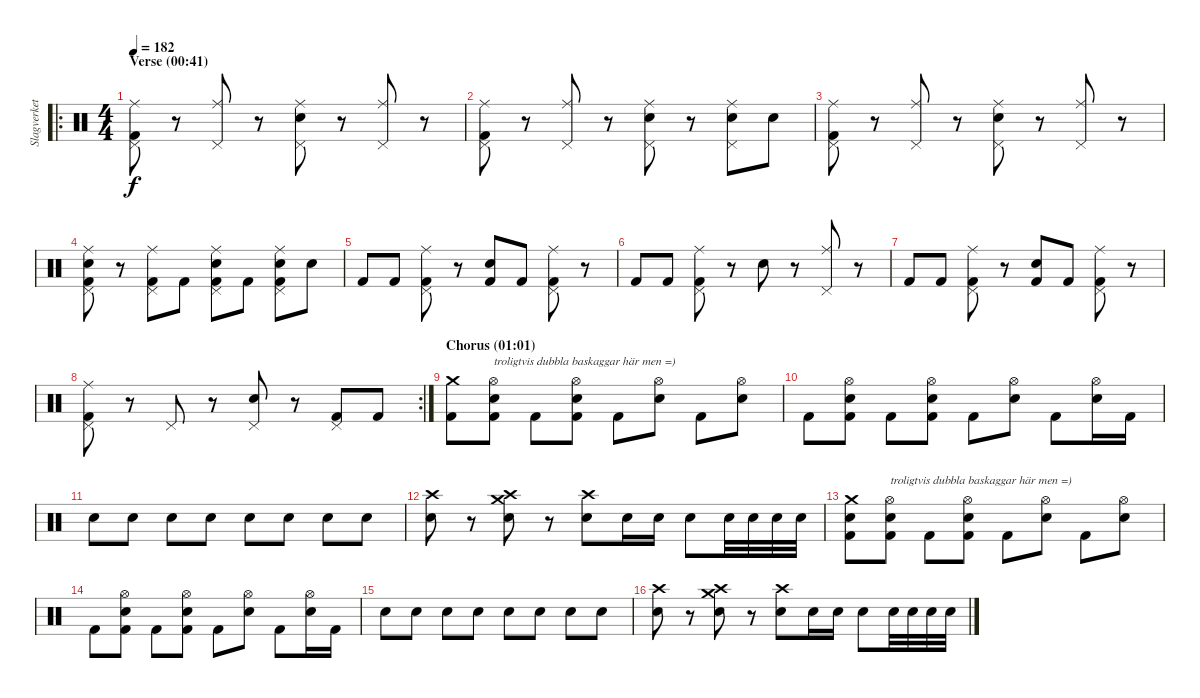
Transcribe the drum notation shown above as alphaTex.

\track ("Slagverket! =)" "Slagverket") {instrument percussion}
\staff {score}
\articulation defaults
\ro
\ts (4 4)
\section ("" "Verse (00:41)")
\tempo 182
\clef neutral
\ks c
("Ride (middle)" "Pedal Hi-Hat (hit)" "Kick (hit) 2").8{dy f} r.8 ("Ride (middle)" "Pedal Hi-Hat (hit)").8 r.8 ("Ride (middle)" "Pedal Hi-Hat (hit)" "Snare (hit) 2").8 r.8 ("Ride (middle)" "Pedal Hi-Hat (hit)").8 r.8 |
("Ride (middle)" "Pedal Hi-Hat (hit)" "Kick (hit) 2").8 r.8 ("Ride (middle)" "Pedal Hi-Hat (hit)").8 r.8 ("Ride (middle)" "Pedal Hi-Hat (hit)" "Snare (hit) 2").8 r.8 ("Ride (middle)" "Pedal Hi-Hat (hit)" "Snare (hit) 2").8 "Snare (hit) 2".8 |
("Ride (middle)" "Pedal Hi-Hat (hit)" "Kick (hit) 2").8 r.8 ("Ride (middle)" "Pedal Hi-Hat (hit)").8 r.8 ("Ride (middle)" "Pedal Hi-Hat (hit)" "Snare (hit) 2").8 r.8 ("Ride (middle)" "Pedal Hi-Hat (hit)").8 r.8 |
("Ride (middle)" "Pedal Hi-Hat (hit)" "Snare (hit) 2" "Kick (hit) 2").8 r.8 ("Ride (middle)" "Pedal Hi-Hat (hit)" "Kick (hit) 2").8 "Kick (hit) 2".8 ("Ride (middle)" "Pedal Hi-Hat (hit)" "Snare (hit) 2" "Kick (hit) 2").8 "Kick (hit) 2".8 ("Ride (middle)" "Pedal Hi-Hat (hit)" "Snare (hit) 2" "Kick (hit) 2").8 "Snare (hit) 2".8 |
"Kick (hit) 2".8 "Kick (hit) 2".8 ("Ride (middle)" "Pedal Hi-Hat (hit)" "Kick (hit) 2").8 r.8 ("Snare (hit) 2" "Kick (hit) 2").8 "Kick (hit) 2".8 ("Ride (middle)" "Pedal Hi-Hat (hit)" "Kick (hit) 2").8 r.8 |
"Kick (hit) 2".8 "Kick (hit) 2".8 ("Ride (middle)" "Pedal Hi-Hat (hit)" "Kick (hit) 2").8 r.8 "Snare (hit) 2".8 r.8 ("Ride (middle)" "Pedal Hi-Hat (hit)").8 r.8 |
"Kick (hit) 2".8 "Kick (hit) 2".8 ("Ride (middle)" "Pedal Hi-Hat (hit)" "Kick (hit) 2").8 r.8 ("Snare (hit) 2" "Kick (hit) 2").8 "Kick (hit) 2".8 ("Ride (middle)" "Pedal Hi-Hat (hit)" "Kick (hit) 2").8 r.8 |
\rc 2
("Ride (middle)" "Pedal Hi-Hat (hit)" "Kick (hit) 2").8 r.8 "Pedal Hi-Hat (hit)".8 r.8 ("Pedal Hi-Hat (hit)" "Snare (hit) 2").8 r.8 ("Pedal Hi-Hat (hit)" "Kick (hit) 2").8 "Kick (hit) 2".8 |
\section ("" "Chorus (01:01)")
("Crash medium (hit)" "Kick (hit) 2").8 ("Hi-Hat (open)" "Snare (hit) 2" "Kick (hit) 2").8{txt "troligtvis dubbla baskaggar här men =)"} "Kick (hit) 2".8 ("Hi-Hat (open)" "Snare (hit) 2" "Kick (hit) 2").8 "Kick (hit) 2".8 ("Hi-Hat (open)" "Snare (hit) 2").8 "Kick (hit) 2".8 ("Hi-Hat (open)" "Snare (hit) 2").8 |
"Kick (hit) 2".8 ("Hi-Hat (open)" "Snare (hit) 2" "Kick (hit) 2").8 "Kick (hit) 2".8 ("Hi-Hat (open)" "Snare (hit) 2" "Kick (hit) 2").8 "Kick (hit) 2".8 ("Hi-Hat (open)" "Snare (hit) 2").8 "Kick (hit) 2".8 ("Hi-Hat (open)" "Snare (hit) 2").16 "Kick (hit) 2".16 |
"Snare (hit) 2".8 "Snare (hit) 2".8 "Snare (hit) 2".8 "Snare (hit) 2".8 "Snare (hit) 2".8 "Snare (hit) 2".8 "Snare (hit) 2".8 "Snare (hit) 2".8 |
("Crash high (hit)" "Snare (hit) 2").8 r.8 ("Crash high (hit)" "Crash medium (hit)" "Snare (hit) 2").8 r.8 ("Crash high (hit)" "Snare (hit) 2").8 "Snare (hit) 2".16 "Snare (hit) 2".16 "Snare (hit) 2".8 "Snare (hit) 2".32 "Snare (hit) 2".32 "Snare (hit) 2".32 "Snare (hit) 2".32 |
("Crash medium (hit)" "Snare (hit) 2" "Kick (hit) 2").8 ("Hi-Hat (open)" "Snare (hit) 2" "Kick (hit) 2").8{txt "troligtvis dubbla baskaggar här men =)"} "Kick (hit) 2".8 ("Hi-Hat (open)" "Snare (hit) 2" "Kick (hit) 2").8 "Kick (hit) 2".8 ("Hi-Hat (open)" "Snare (hit) 2").8 "Kick (hit) 2".8 ("Hi-Hat (open)" "Snare (hit) 2").8 |
"Kick (hit) 2".8 ("Hi-Hat (open)" "Snare (hit) 2" "Kick (hit) 2").8 "Kick (hit) 2".8 ("Hi-Hat (open)" "Snare (hit) 2" "Kick (hit) 2").8 "Kick (hit) 2".8 ("Hi-Hat (open)" "Snare (hit) 2").8 "Kick (hit) 2".8 ("Hi-Hat (open)" "Snare (hit) 2").16 "Kick (hit) 2".16 |
"Snare (hit) 2".8 "Snare (hit) 2".8 "Snare (hit) 2".8 "Snare (hit) 2".8 "Snare (hit) 2".8 "Snare (hit) 2".8 "Snare (hit) 2".8 "Snare (hit) 2".8 |
("Crash high (hit)" "Snare (hit) 2").8 r.8 ("Crash high (hit)" "Crash medium (hit)" "Snare (hit) 2").8 r.8 ("Crash high (hit)" "Snare (hit) 2").8 "Snare (hit) 2".16 "Snare (hit) 2".16 "Snare (hit) 2".8 "Snare (hit) 2".32 "Snare (hit) 2".32 "Snare (hit) 2".32 "Snare (hit) 2".32
